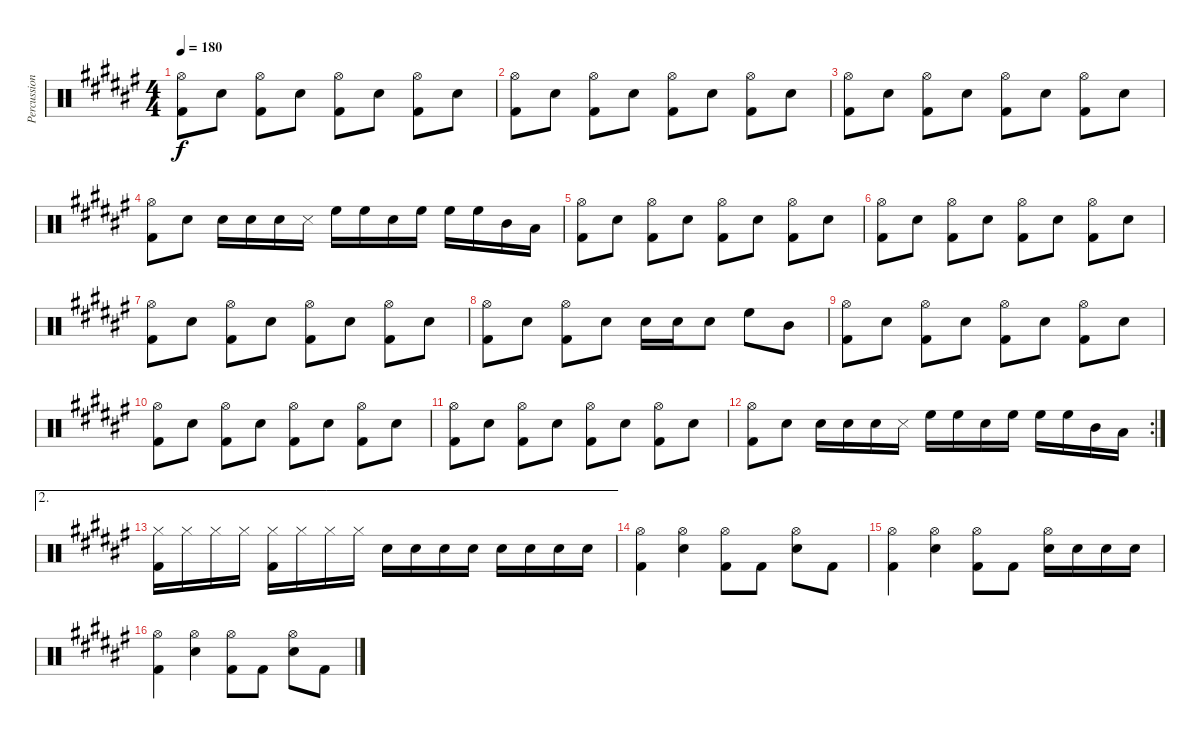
\track ("Percussion" "Percussion") {instrument percussion}
\staff {score}
\articulation defaults
\ts (4 4)
\tempo 180
\clef neutral
\ks f#
("Hi-Hat (open)" "Kick (hit) 2").8{dy f} "Snare (hit) 2".8 ("Hi-Hat (open)" "Kick (hit) 2").8 "Snare (hit) 2".8 ("Hi-Hat (open)" "Kick (hit) 2").8 "Snare (hit) 2".8 ("Hi-Hat (open)" "Kick (hit) 2").8 "Snare (hit) 2".8 |
("Hi-Hat (open)" "Kick (hit) 2").8 "Snare (hit) 2".8 ("Hi-Hat (open)" "Kick (hit) 2").8 "Snare (hit) 2".8 ("Hi-Hat (open)" "Kick (hit) 2").8 "Snare (hit) 2".8 ("Hi-Hat (open)" "Kick (hit) 2").8 "Snare (hit) 2".8 |
("Hi-Hat (open)" "Kick (hit) 2").8 "Snare (hit) 2".8 ("Hi-Hat (open)" "Kick (hit) 2").8 "Snare (hit) 2".8 ("Hi-Hat (open)" "Kick (hit) 2").8 "Snare (hit) 2".8 ("Hi-Hat (open)" "Kick (hit) 2").8 "Snare (hit) 2".8 |
("Hi-Hat (open)" "Kick (hit) 2").8 "Snare (hit) 2".8 "Snare (hit) 2".16 "Snare (hit) 2".16 "Snare (hit) 2".16 "Snare (side stick) 3".16 "High Floor Tom (hit)".16 "High Floor Tom (hit)".16 "Snare (hit) 2".16 "High Floor Tom (hit)".16 "High Floor Tom (hit)".16 "High Floor Tom (hit)".16 "Mid Tom (hit)".16 "Low Floor Tom (hit)".16 |
("Hi-Hat (open)" "Kick (hit) 2").8 "Snare (hit) 2".8 ("Hi-Hat (open)" "Kick (hit) 2").8 "Snare (hit) 2".8 ("Hi-Hat (open)" "Kick (hit) 2").8 "Snare (hit) 2".8 ("Hi-Hat (open)" "Kick (hit) 2").8 "Snare (hit) 2".8 |
("Hi-Hat (open)" "Kick (hit) 2").8 "Snare (hit) 2".8 ("Hi-Hat (open)" "Kick (hit) 2").8 "Snare (hit) 2".8 ("Hi-Hat (open)" "Kick (hit) 2").8 "Snare (hit) 2".8 ("Hi-Hat (open)" "Kick (hit) 2").8 "Snare (hit) 2".8 |
("Hi-Hat (open)" "Kick (hit) 2").8 "Snare (hit) 2".8 ("Hi-Hat (open)" "Kick (hit) 2").8 "Snare (hit) 2".8 ("Hi-Hat (open)" "Kick (hit) 2").8 "Snare (hit) 2".8 ("Hi-Hat (open)" "Kick (hit) 2").8 "Snare (hit) 2".8 |
("Hi-Hat (open)" "Kick (hit) 2").8 "Snare (hit) 2".8 ("Hi-Hat (open)" "Kick (hit) 2").8 "Snare (hit) 2".8 "Snare (hit) 2".16 "Snare (hit) 2".16 "Snare (hit) 2".8 "High Floor Tom (hit)".8 "Mid Tom (hit)".8 |
("Hi-Hat (open)" "Kick (hit) 2").8 "Snare (hit) 2".8 ("Hi-Hat (open)" "Kick (hit) 2").8 "Snare (hit) 2".8 ("Hi-Hat (open)" "Kick (hit) 2").8 "Snare (hit) 2".8 ("Hi-Hat (open)" "Kick (hit) 2").8 "Snare (hit) 2".8 |
("Hi-Hat (open)" "Kick (hit) 2").8 "Snare (hit) 2".8 ("Hi-Hat (open)" "Kick (hit) 2").8 "Snare (hit) 2".8 ("Hi-Hat (open)" "Kick (hit) 2").8 "Snare (hit) 2".8 ("Hi-Hat (open)" "Kick (hit) 2").8 "Snare (hit) 2".8 |
("Hi-Hat (open)" "Kick (hit) 2").8 "Snare (hit) 2".8 ("Hi-Hat (open)" "Kick (hit) 2").8 "Snare (hit) 2".8 ("Hi-Hat (open)" "Kick (hit) 2").8 "Snare (hit) 2".8 ("Hi-Hat (open)" "Kick (hit) 2").8 "Snare (hit) 2".8 |
\rc 2
("Hi-Hat (open)" "Kick (hit) 2").8 "Snare (hit) 2".8 "Snare (hit) 2".16 "Snare (hit) 2".16 "Snare (hit) 2".16 "Snare (side stick) 3".16 "High Floor Tom (hit)".16 "High Floor Tom (hit)".16 "Snare (hit) 2".16 "High Floor Tom (hit)".16 "High Floor Tom (hit)".16 "High Floor Tom (hit)".16 "Mid Tom (hit)".16 "Low Floor Tom (hit)".16 |
\ae 2
("Hi-Hat (closed)" "Kick (hit) 2").16 "Hi-Hat (closed)".16 "Hi-Hat (closed)".16 "Hi-Hat (closed)".16 ("Hi-Hat (closed)" "Kick (hit) 2").16 "Hi-Hat (closed)".16 "Hi-Hat (closed)".16 "Hi-Hat (closed)".16 "Snare (hit) 2".16 "Snare (hit) 2".16 "Snare (hit) 2".16 "Snare (hit) 2".16 "Snare (hit) 2".16 "Snare (hit) 2".16 "Snare (hit) 2".16 "Snare (hit) 2".16 |
("Hi-Hat (open)" "Kick (hit) 2").4 ("Hi-Hat (open)" "Snare (hit) 2").4 ("Hi-Hat (open)" "Kick (hit) 2").8 "Kick (hit) 2".8 ("Hi-Hat (open)" "Snare (hit) 2").8 "Kick (hit) 2".8 |
("Hi-Hat (open)" "Kick (hit) 2").4 ("Hi-Hat (open)" "Snare (hit) 2").4 ("Hi-Hat (open)" "Kick (hit) 2").8 "Kick (hit) 2".8 ("Hi-Hat (open)" "Snare (hit) 2").16 "Snare (hit) 2".16 "Snare (hit) 2".16 "Snare (hit) 2".16 |
("Hi-Hat (open)" "Kick (hit) 2").4 ("Hi-Hat (open)" "Snare (hit) 2").4 ("Hi-Hat (open)" "Kick (hit) 2").8 "Kick (hit) 2".8 ("Hi-Hat (open)" "Snare (hit) 2").8 "Kick (hit) 2".8
